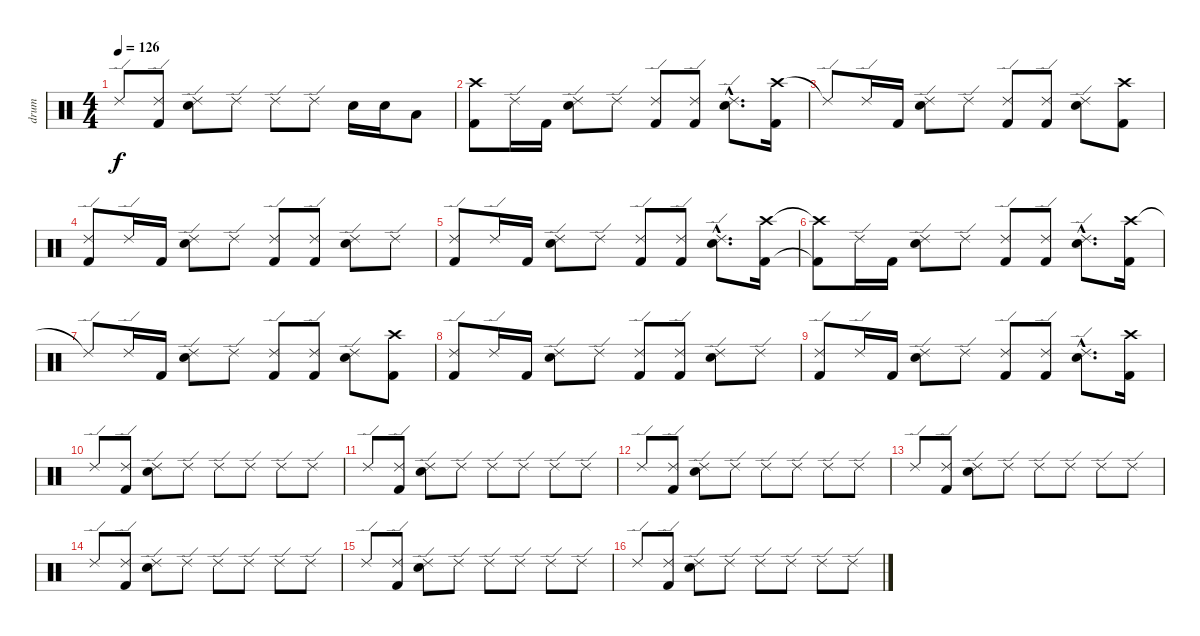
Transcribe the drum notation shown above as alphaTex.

\track ("drum" "drum") {instrument percussion}
\staff {score}
\articulation defaults
\ts (4 4)
\tempo 126
\clef neutral
\ks c "Ride (edge) 2".8{dy f}
("Ride (edge) 2" "Kick (hit) 2").8 ("Ride (edge) 2" "Electric Snare (hit)").8 "Ride (edge) 2".8 "Ride (edge) 2".8 "Ride (edge) 2".8 "Electric Snare (hit)".16 "Electric Snare (hit)".16 "Low Tom (hit)".8 |
("Crash high (hit)" "Kick (hit) 2").8 "Ride (edge) 2".16 "Kick (hit) 2".16 ("Ride (edge) 2" "Snare (hit) 2").8 "Ride (edge) 2".8 ("Ride (edge) 2" "Kick (hit) 2").8 ("Ride (edge) 2" "Kick (hit) 2").8 ("Ride (edge) 2"{hac} "Snare (hit) 2"{hac}).8{d} ("Crash high (hit)" "Kick (hit) 2").16 |
"Ride (edge) 2"{t}.8 "Ride (edge) 2".16 "Kick (hit) 2".16 ("Ride (edge) 2" "Snare (hit) 2").8 "Ride (edge) 2".8 ("Ride (edge) 2" "Kick (hit) 2").8 ("Ride (edge) 2" "Kick (hit) 2").8 ("Ride (edge) 2" "Snare (hit) 2").8 ("Crash high (hit)" "Kick (hit) 2").8 |
("Ride (edge) 2" "Kick (hit) 2").8 "Ride (edge) 2".16 "Kick (hit) 2".16 ("Ride (edge) 2" "Snare (hit) 2").8 "Ride (edge) 2".8 ("Ride (edge) 2" "Kick (hit) 2").8 ("Ride (edge) 2" "Kick (hit) 2").8 ("Ride (edge) 2" "Snare (hit) 2").8 "Ride (edge) 2".8 |
("Ride (edge) 2" "Kick (hit) 2").8 "Ride (edge) 2".16 "Kick (hit) 2".16 ("Ride (edge) 2" "Snare (hit) 2").8 "Ride (edge) 2".8 ("Ride (edge) 2" "Kick (hit) 2").8 ("Ride (edge) 2" "Kick (hit) 2").8 ("Ride (edge) 2"{hac} "Snare (hit) 2"{hac}).8{d} ("Crash high (hit)" "Kick (hit) 2").16 |
("Crash high (hit)"{t} "Kick (hit) 2"{t}).8 "Ride (edge) 2".16 "Kick (hit) 2".16 ("Ride (edge) 2" "Snare (hit) 2").8 "Ride (edge) 2".8 ("Ride (edge) 2" "Kick (hit) 2").8 ("Ride (edge) 2" "Kick (hit) 2").8 ("Ride (edge) 2"{hac} "Snare (hit) 2"{hac}).8{d} ("Crash high (hit)" "Kick (hit) 2").16 |
"Ride (edge) 2"{t}.8 "Ride (edge) 2".16 "Kick (hit) 2".16 ("Ride (edge) 2" "Snare (hit) 2").8 "Ride (edge) 2".8 ("Ride (edge) 2" "Kick (hit) 2").8 ("Ride (edge) 2" "Kick (hit) 2").8 ("Ride (edge) 2" "Snare (hit) 2").8 ("Crash high (hit)" "Kick (hit) 2").8 |
("Ride (edge) 2" "Kick (hit) 2").8 "Ride (edge) 2".16 "Kick (hit) 2".16 ("Ride (edge) 2" "Snare (hit) 2").8 "Ride (edge) 2".8 ("Ride (edge) 2" "Kick (hit) 2").8 ("Ride (edge) 2" "Kick (hit) 2").8 ("Ride (edge) 2" "Snare (hit) 2").8 "Ride (edge) 2".8 |
("Ride (edge) 2" "Kick (hit) 2").8 "Ride (edge) 2".16 "Kick (hit) 2".16 ("Ride (edge) 2" "Snare (hit) 2").8 "Ride (edge) 2".8 ("Ride (edge) 2" "Kick (hit) 2").8 ("Ride (edge) 2" "Kick (hit) 2").8 ("Ride (edge) 2"{hac} "Snare (hit) 2"{hac}).8{d} ("Crash high (hit)" "Kick (hit) 2").16 |
"Ride (edge) 2".8 ("Ride (edge) 2" "Kick (hit) 2").8 ("Ride (edge) 2" "Electric Snare (hit)").8 "Ride (edge) 2".8 "Ride (edge) 2".8 "Ride (edge) 2".8 "Ride (edge) 2".8 "Ride (edge) 2".8 |
"Ride (edge) 2".8 ("Ride (edge) 2" "Kick (hit) 2").8 ("Ride (edge) 2" "Electric Snare (hit)").8 "Ride (edge) 2".8 "Ride (edge) 2".8 "Ride (edge) 2".8 "Ride (edge) 2".8 "Ride (edge) 2".8 |
"Ride (edge) 2".8 ("Ride (edge) 2" "Kick (hit) 2").8 ("Ride (edge) 2" "Electric Snare (hit)").8 "Ride (edge) 2".8 "Ride (edge) 2".8 "Ride (edge) 2".8 "Ride (edge) 2".8 "Ride (edge) 2".8 |
"Ride (edge) 2".8 ("Ride (edge) 2" "Kick (hit) 2").8 ("Ride (edge) 2" "Electric Snare (hit)").8 "Ride (edge) 2".8 "Ride (edge) 2".8 "Ride (edge) 2".8 "Ride (edge) 2".8 "Ride (edge) 2".8 |
"Ride (edge) 2".8 ("Ride (edge) 2" "Kick (hit) 2").8 ("Ride (edge) 2" "Electric Snare (hit)").8 "Ride (edge) 2".8 "Ride (edge) 2".8 "Ride (edge) 2".8 "Ride (edge) 2".8 "Ride (edge) 2".8 |
"Ride (edge) 2".8 ("Ride (edge) 2" "Kick (hit) 2").8 ("Ride (edge) 2" "Electric Snare (hit)").8 "Ride (edge) 2".8 "Ride (edge) 2".8 "Ride (edge) 2".8 "Ride (edge) 2".8 "Ride (edge) 2".8 |
"Ride (edge) 2".8 ("Ride (edge) 2" "Kick (hit) 2").8 ("Ride (edge) 2" "Electric Snare (hit)").8 "Ride (edge) 2".8 "Ride (edge) 2".8 "Ride (edge) 2".8 "Ride (edge) 2".8 "Ride (edge) 2".8
